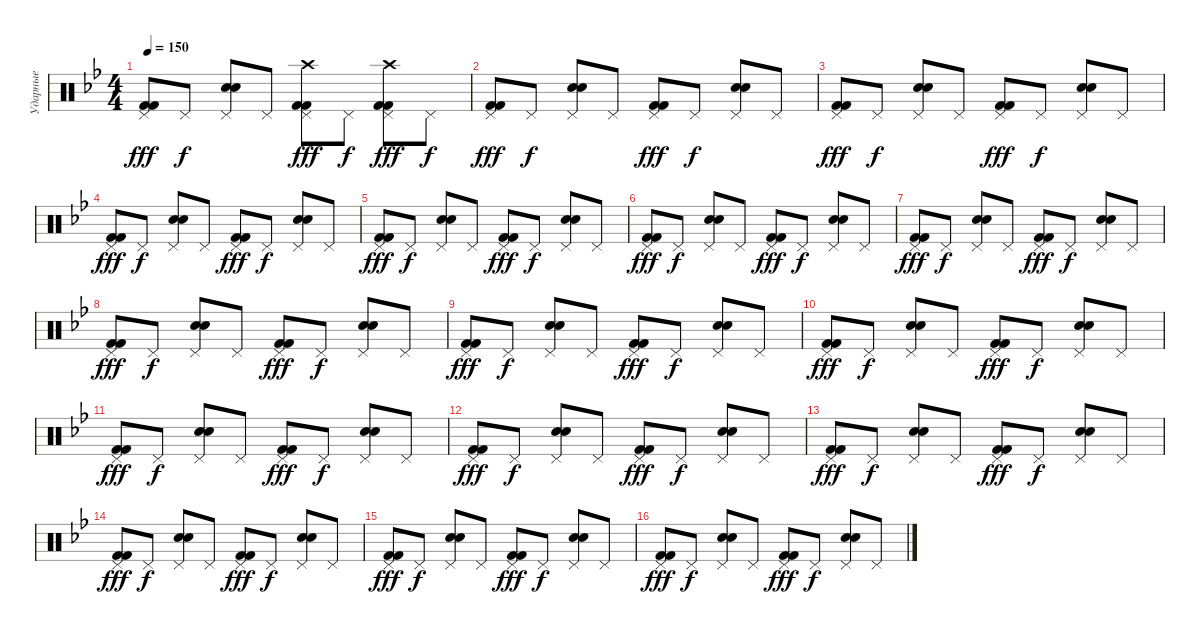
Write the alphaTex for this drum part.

\track ("Ударные" "Ударные") {instrument percussion}
\staff {score}
\articulation defaults
\ts (4 4)
\tempo 150
\clef neutral
\ks gminor
("Kick (hit) 2" "Kick (hit) 2" "Pedal Hi-Hat (hit)").8{dy fff} "Pedal Hi-Hat (hit)".8{dy f} ("Electric Snare (hit)" "Electric Snare (hit)" "Pedal Hi-Hat (hit)").8 "Pedal Hi-Hat (hit)".8 ("Kick (hit) 2" "Crash high (hit)" "Kick (hit) 2" "Pedal Hi-Hat (hit)").8{dy fff} "Pedal Hi-Hat (hit)".8{dy f} ("Kick (hit) 2" "Crash high (hit)" "Kick (hit) 2" "Pedal Hi-Hat (hit)").8{dy fff} "Pedal Hi-Hat (hit)".8{dy f} |
("Kick (hit) 2" "Kick (hit) 2" "Pedal Hi-Hat (hit)").8{dy fff} "Pedal Hi-Hat (hit)".8{dy f} ("Electric Snare (hit)" "Electric Snare (hit)" "Pedal Hi-Hat (hit)").8 "Pedal Hi-Hat (hit)".8 ("Kick (hit) 2" "Kick (hit) 2" "Pedal Hi-Hat (hit)").8{dy fff} "Pedal Hi-Hat (hit)".8{dy f} ("Electric Snare (hit)" "Electric Snare (hit)" "Pedal Hi-Hat (hit)").8 "Pedal Hi-Hat (hit)".8 |
("Kick (hit) 2" "Kick (hit) 2" "Pedal Hi-Hat (hit)").8{dy fff} "Pedal Hi-Hat (hit)".8{dy f} ("Electric Snare (hit)" "Electric Snare (hit)" "Pedal Hi-Hat (hit)").8 "Pedal Hi-Hat (hit)".8 ("Kick (hit) 2" "Kick (hit) 2" "Pedal Hi-Hat (hit)").8{dy fff} "Pedal Hi-Hat (hit)".8{dy f} ("Electric Snare (hit)" "Electric Snare (hit)" "Pedal Hi-Hat (hit)").8 "Pedal Hi-Hat (hit)".8 |
("Kick (hit) 2" "Kick (hit) 2" "Pedal Hi-Hat (hit)").8{dy fff} "Pedal Hi-Hat (hit)".8{dy f} ("Electric Snare (hit)" "Electric Snare (hit)" "Pedal Hi-Hat (hit)").8 "Pedal Hi-Hat (hit)".8 ("Kick (hit) 2" "Kick (hit) 2" "Pedal Hi-Hat (hit)").8{dy fff} "Pedal Hi-Hat (hit)".8{dy f} ("Electric Snare (hit)" "Electric Snare (hit)" "Pedal Hi-Hat (hit)").8 "Pedal Hi-Hat (hit)".8 |
("Kick (hit) 2" "Kick (hit) 2" "Pedal Hi-Hat (hit)").8{dy fff} "Pedal Hi-Hat (hit)".8{dy f} ("Electric Snare (hit)" "Electric Snare (hit)" "Pedal Hi-Hat (hit)").8 "Pedal Hi-Hat (hit)".8 ("Kick (hit) 2" "Kick (hit) 2" "Pedal Hi-Hat (hit)").8{dy fff} "Pedal Hi-Hat (hit)".8{dy f} ("Electric Snare (hit)" "Electric Snare (hit)" "Pedal Hi-Hat (hit)").8 "Pedal Hi-Hat (hit)".8 |
("Kick (hit) 2" "Kick (hit) 2" "Pedal Hi-Hat (hit)").8{dy fff} "Pedal Hi-Hat (hit)".8{dy f} ("Electric Snare (hit)" "Electric Snare (hit)" "Pedal Hi-Hat (hit)").8 "Pedal Hi-Hat (hit)".8 ("Kick (hit) 2" "Kick (hit) 2" "Pedal Hi-Hat (hit)").8{dy fff} "Pedal Hi-Hat (hit)".8{dy f} ("Electric Snare (hit)" "Electric Snare (hit)" "Pedal Hi-Hat (hit)").8 "Pedal Hi-Hat (hit)".8 |
("Kick (hit) 2" "Kick (hit) 2" "Pedal Hi-Hat (hit)").8{dy fff} "Pedal Hi-Hat (hit)".8{dy f} ("Electric Snare (hit)" "Electric Snare (hit)" "Pedal Hi-Hat (hit)").8 "Pedal Hi-Hat (hit)".8 ("Kick (hit) 2" "Kick (hit) 2" "Pedal Hi-Hat (hit)").8{dy fff} "Pedal Hi-Hat (hit)".8{dy f} ("Electric Snare (hit)" "Electric Snare (hit)" "Pedal Hi-Hat (hit)").8 "Pedal Hi-Hat (hit)".8 |
("Kick (hit) 2" "Kick (hit) 2" "Pedal Hi-Hat (hit)").8{dy fff} "Pedal Hi-Hat (hit)".8{dy f} ("Electric Snare (hit)" "Electric Snare (hit)" "Pedal Hi-Hat (hit)").8 "Pedal Hi-Hat (hit)".8 ("Kick (hit) 2" "Kick (hit) 2" "Pedal Hi-Hat (hit)").8{dy fff} "Pedal Hi-Hat (hit)".8{dy f} ("Electric Snare (hit)" "Electric Snare (hit)" "Pedal Hi-Hat (hit)").8 "Pedal Hi-Hat (hit)".8 |
("Kick (hit) 2" "Kick (hit) 2" "Pedal Hi-Hat (hit)").8{dy fff} "Pedal Hi-Hat (hit)".8{dy f} ("Electric Snare (hit)" "Electric Snare (hit)" "Pedal Hi-Hat (hit)").8 "Pedal Hi-Hat (hit)".8 ("Kick (hit) 2" "Kick (hit) 2" "Pedal Hi-Hat (hit)").8{dy fff} "Pedal Hi-Hat (hit)".8{dy f} ("Electric Snare (hit)" "Electric Snare (hit)" "Pedal Hi-Hat (hit)").8 "Pedal Hi-Hat (hit)".8 |
("Kick (hit) 2" "Kick (hit) 2" "Pedal Hi-Hat (hit)").8{dy fff} "Pedal Hi-Hat (hit)".8{dy f} ("Electric Snare (hit)" "Electric Snare (hit)" "Pedal Hi-Hat (hit)").8 "Pedal Hi-Hat (hit)".8 ("Kick (hit) 2" "Kick (hit) 2" "Pedal Hi-Hat (hit)").8{dy fff} "Pedal Hi-Hat (hit)".8{dy f} ("Electric Snare (hit)" "Electric Snare (hit)" "Pedal Hi-Hat (hit)").8 "Pedal Hi-Hat (hit)".8 |
("Kick (hit) 2" "Kick (hit) 2" "Pedal Hi-Hat (hit)").8{dy fff} "Pedal Hi-Hat (hit)".8{dy f} ("Electric Snare (hit)" "Electric Snare (hit)" "Pedal Hi-Hat (hit)").8 "Pedal Hi-Hat (hit)".8 ("Kick (hit) 2" "Kick (hit) 2" "Pedal Hi-Hat (hit)").8{dy fff} "Pedal Hi-Hat (hit)".8{dy f} ("Electric Snare (hit)" "Electric Snare (hit)" "Pedal Hi-Hat (hit)").8 "Pedal Hi-Hat (hit)".8 |
("Kick (hit) 2" "Kick (hit) 2" "Pedal Hi-Hat (hit)").8{dy fff} "Pedal Hi-Hat (hit)".8{dy f} ("Electric Snare (hit)" "Electric Snare (hit)" "Pedal Hi-Hat (hit)").8 "Pedal Hi-Hat (hit)".8 ("Kick (hit) 2" "Kick (hit) 2" "Pedal Hi-Hat (hit)").8{dy fff} "Pedal Hi-Hat (hit)".8{dy f} ("Electric Snare (hit)" "Electric Snare (hit)" "Pedal Hi-Hat (hit)").8 "Pedal Hi-Hat (hit)".8 |
("Kick (hit) 2" "Kick (hit) 2" "Pedal Hi-Hat (hit)").8{dy fff} "Pedal Hi-Hat (hit)".8{dy f} ("Electric Snare (hit)" "Electric Snare (hit)" "Pedal Hi-Hat (hit)").8 "Pedal Hi-Hat (hit)".8 ("Kick (hit) 2" "Kick (hit) 2" "Pedal Hi-Hat (hit)").8{dy fff} "Pedal Hi-Hat (hit)".8{dy f} ("Electric Snare (hit)" "Electric Snare (hit)" "Pedal Hi-Hat (hit)").8 "Pedal Hi-Hat (hit)".8 |
("Kick (hit) 2" "Kick (hit) 2" "Pedal Hi-Hat (hit)").8{dy fff} "Pedal Hi-Hat (hit)".8{dy f} ("Electric Snare (hit)" "Electric Snare (hit)" "Pedal Hi-Hat (hit)").8 "Pedal Hi-Hat (hit)".8 ("Kick (hit) 2" "Kick (hit) 2" "Pedal Hi-Hat (hit)").8{dy fff} "Pedal Hi-Hat (hit)".8{dy f} ("Electric Snare (hit)" "Electric Snare (hit)" "Pedal Hi-Hat (hit)").8 "Pedal Hi-Hat (hit)".8 |
("Kick (hit) 2" "Kick (hit) 2" "Pedal Hi-Hat (hit)").8{dy fff} "Pedal Hi-Hat (hit)".8{dy f} ("Electric Snare (hit)" "Electric Snare (hit)" "Pedal Hi-Hat (hit)").8 "Pedal Hi-Hat (hit)".8 ("Kick (hit) 2" "Kick (hit) 2" "Pedal Hi-Hat (hit)").8{dy fff} "Pedal Hi-Hat (hit)".8{dy f} ("Electric Snare (hit)" "Electric Snare (hit)" "Pedal Hi-Hat (hit)").8 "Pedal Hi-Hat (hit)".8 |
("Kick (hit) 2" "Kick (hit) 2" "Pedal Hi-Hat (hit)").8{dy fff} "Pedal Hi-Hat (hit)".8{dy f} ("Electric Snare (hit)" "Electric Snare (hit)" "Pedal Hi-Hat (hit)").8 "Pedal Hi-Hat (hit)".8 ("Kick (hit) 2" "Kick (hit) 2" "Pedal Hi-Hat (hit)").8{dy fff} "Pedal Hi-Hat (hit)".8{dy f} ("Electric Snare (hit)" "Electric Snare (hit)" "Pedal Hi-Hat (hit)").8 "Pedal Hi-Hat (hit)".8
